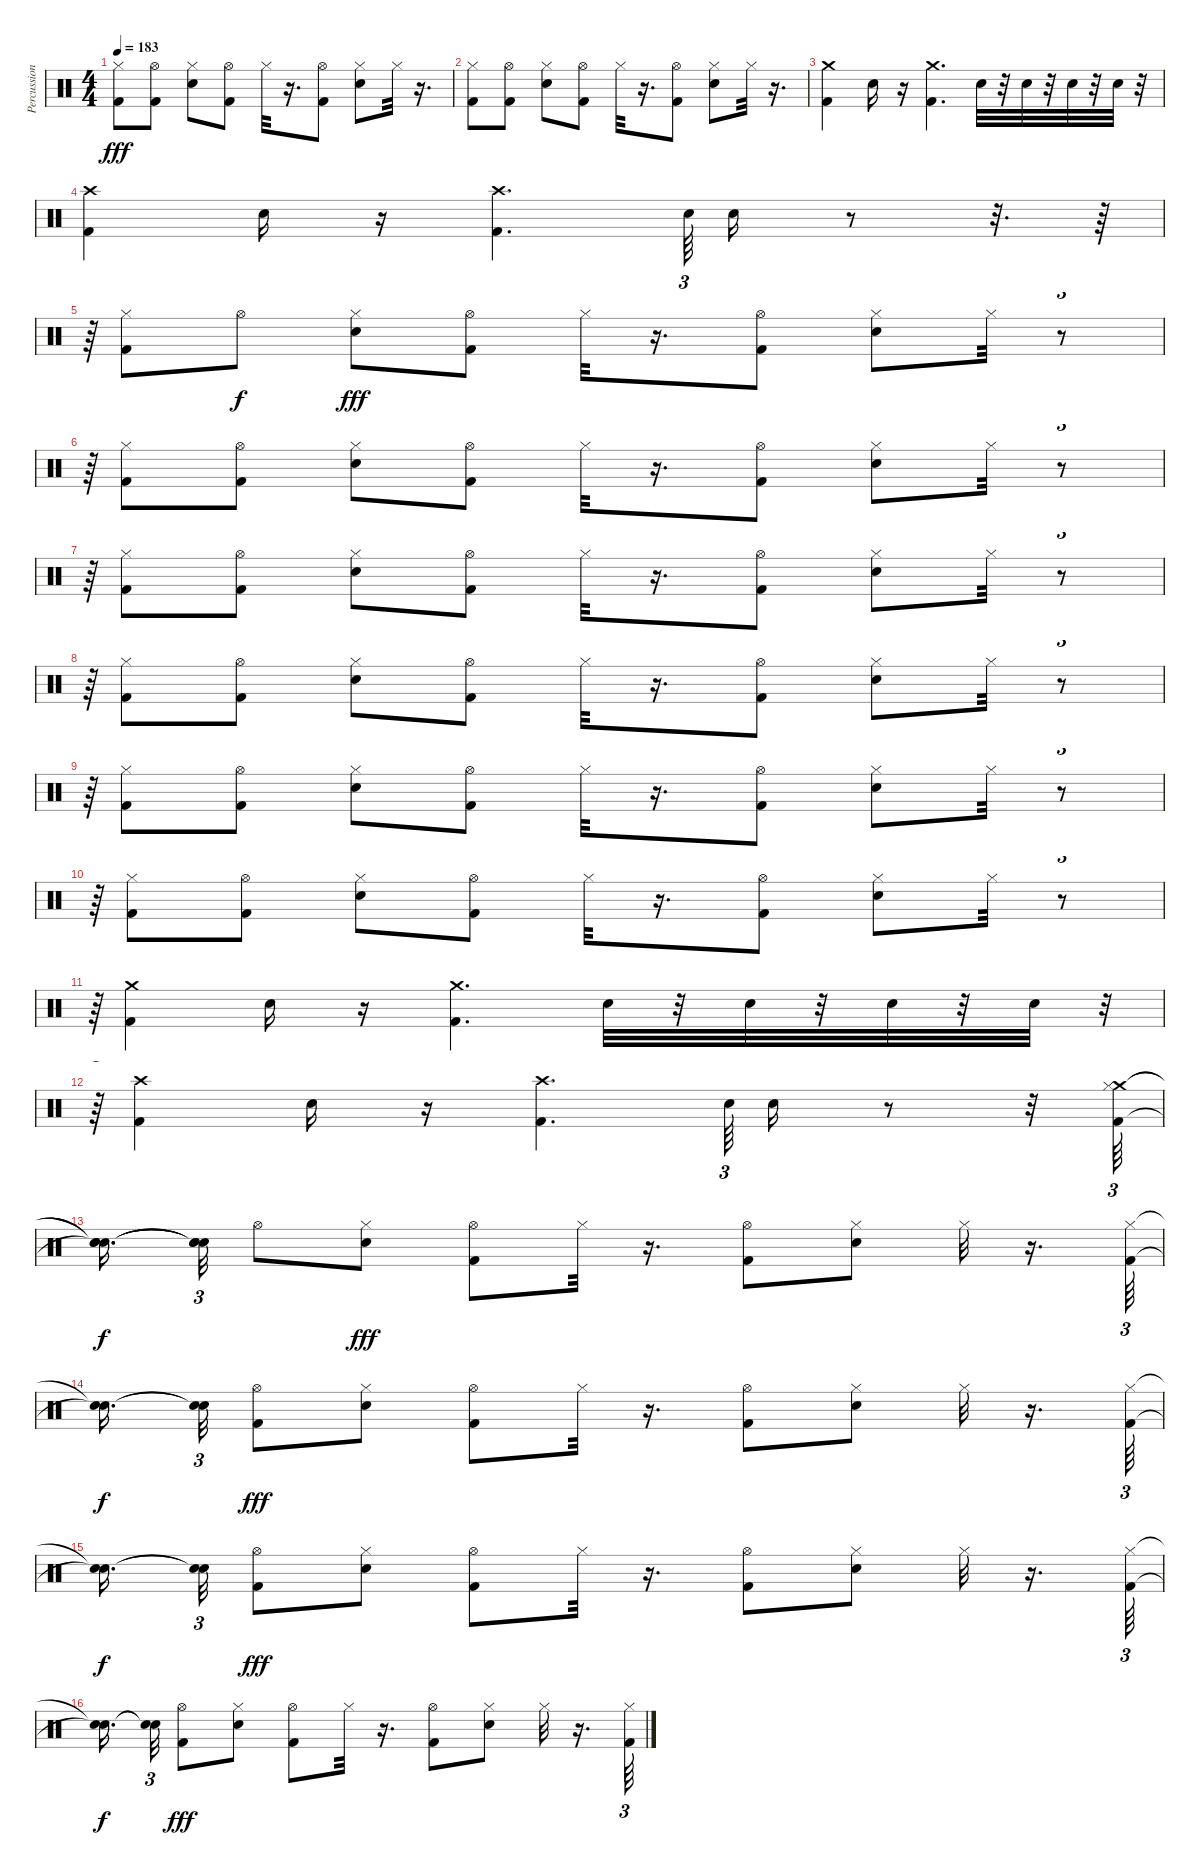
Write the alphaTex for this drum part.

\track ("Percussioni" "Percussion") {instrument percussion}
\staff {score}
\articulation defaults
\ts (4 4)
\tempo 183
\clef neutral
\ks c
("Hi-Hat (closed)" "Kick (hit) 2").8{dy fff} ("Hi-Hat (open)" "Kick (hit) 2").8 ("Hi-Hat (closed)" "Snare (hit) 2").8 ("Hi-Hat (open)" "Kick (hit) 2").8 "Hi-Hat (closed)".32 r.16{d} ("Hi-Hat (open)" "Kick (hit) 2").8 ("Hi-Hat (closed)" "Snare (hit) 2").8 "Hi-Hat (closed)".32 r.16{d} |
("Hi-Hat (closed)" "Kick (hit) 2").8 ("Hi-Hat (open)" "Kick (hit) 2").8 ("Hi-Hat (closed)" "Snare (hit) 2").8 ("Hi-Hat (open)" "Kick (hit) 2").8 "Hi-Hat (closed)".32 r.16{d} ("Hi-Hat (open)" "Kick (hit) 2").8 ("Hi-Hat (closed)" "Snare (hit) 2").8 "Hi-Hat (closed)".32 r.16{d} |
("Crash medium (hit)" "Kick (hit) 2").4 "Snare (hit) 2".16 r.16 ("Crash medium (hit)" "Kick (hit) 2").4{d} "Snare (hit) 2".32 r.32 "Snare (hit) 2".32 r.32 "Snare (hit) 2".32 r.32 "Snare (hit) 2".32 r.32 |
("Crash high (hit)" "Kick (hit) 2").4 "Snare (hit) 2".16 r.16 ("Crash high (hit)" "Kick (hit) 2").4{d} "Snare (hit) 2".64{tu (3 2)} "Snare (hit) 2".16 r.8 r.32{d} r.64 |
r.64{tu (3 2)} ("Hi-Hat (closed)" "Kick (hit) 2").8 "Hi-Hat (open)".8{dy f} ("Hi-Hat (closed)" "Snare (hit) 2").8{dy fff} ("Hi-Hat (open)" "Kick (hit) 2").8 "Hi-Hat (closed)".32 r.16{d} ("Hi-Hat (open)" "Kick (hit) 2").8 ("Hi-Hat (closed)" "Snare (hit) 2").8 "Hi-Hat (closed)".32 r.8{tu (3 2)} |
r.64{tu (3 2)} ("Hi-Hat (closed)" "Kick (hit) 2").8 ("Hi-Hat (open)" "Kick (hit) 2").8 ("Hi-Hat (closed)" "Snare (hit) 2").8 ("Hi-Hat (open)" "Kick (hit) 2").8 "Hi-Hat (closed)".32 r.16{d} ("Hi-Hat (open)" "Kick (hit) 2").8 ("Hi-Hat (closed)" "Snare (hit) 2").8 "Hi-Hat (closed)".32 r.8{tu (3 2)} |
r.64{tu (3 2)} ("Hi-Hat (closed)" "Kick (hit) 2").8 ("Hi-Hat (open)" "Kick (hit) 2").8 ("Hi-Hat (closed)" "Snare (hit) 2").8 ("Hi-Hat (open)" "Kick (hit) 2").8 "Hi-Hat (closed)".32 r.16{d} ("Hi-Hat (open)" "Kick (hit) 2").8 ("Hi-Hat (closed)" "Snare (hit) 2").8 "Hi-Hat (closed)".32 r.8{tu (3 2)} |
r.64{tu (3 2)} ("Hi-Hat (closed)" "Kick (hit) 2").8 ("Hi-Hat (open)" "Kick (hit) 2").8 ("Hi-Hat (closed)" "Snare (hit) 2").8 ("Hi-Hat (open)" "Kick (hit) 2").8 "Hi-Hat (closed)".32 r.16{d} ("Hi-Hat (open)" "Kick (hit) 2").8 ("Hi-Hat (closed)" "Snare (hit) 2").8 "Hi-Hat (closed)".32 r.8{tu (3 2)} |
r.64{tu (3 2)} ("Hi-Hat (closed)" "Kick (hit) 2").8 ("Hi-Hat (open)" "Kick (hit) 2").8 ("Hi-Hat (closed)" "Snare (hit) 2").8 ("Hi-Hat (open)" "Kick (hit) 2").8 "Hi-Hat (closed)".32 r.16{d} ("Hi-Hat (open)" "Kick (hit) 2").8 ("Hi-Hat (closed)" "Snare (hit) 2").8 "Hi-Hat (closed)".32 r.8{tu (3 2)} |
r.64{tu (3 2)} ("Hi-Hat (closed)" "Kick (hit) 2").8 ("Hi-Hat (open)" "Kick (hit) 2").8 ("Hi-Hat (closed)" "Snare (hit) 2").8 ("Hi-Hat (open)" "Kick (hit) 2").8 "Hi-Hat (closed)".32 r.16{d} ("Hi-Hat (open)" "Kick (hit) 2").8 ("Hi-Hat (closed)" "Snare (hit) 2").8 "Hi-Hat (closed)".32 r.8{tu (3 2)} |
r.64{tu (3 2)} ("Crash medium (hit)" "Kick (hit) 2").4 "Snare (hit) 2".16 r.16 ("Crash medium (hit)" "Kick (hit) 2").4{d} "Snare (hit) 2".32 r.32 "Snare (hit) 2".32 r.32 "Snare (hit) 2".32 r.32 "Snare (hit) 2".32 r.32{tu (3 2)} |
r.64{tu (3 2)} ("Crash high (hit)" "Kick (hit) 2").4 "Snare (hit) 2".16 r.16 ("Crash high (hit)" "Kick (hit) 2").4{d} "Snare (hit) 2".64{tu (3 2)} "Snare (hit) 2".16 r.8 r.32 ("Crash medium (hit)" "Hi-Hat (closed)" "Kick (hit) 2").64{tu (3 2)} |
("Snare (hit)"{t} "Snare (hit)"{t} "Snare (hit)"{t}).16{d dy f beam splitsecondary} ("Snare (hit)"{t} "Snare (hit)"{t} "Snare (hit)"{t}).32{tu (3 2)} "Hi-Hat (open)".8 ("Hi-Hat (closed)" "Snare (hit) 2").8{dy fff} ("Hi-Hat (open)" "Kick (hit) 2").8 "Hi-Hat (closed)".32 r.16{d} ("Hi-Hat (open)" "Kick (hit) 2").8 ("Hi-Hat (closed)" "Snare (hit) 2").8 "Hi-Hat (closed)".32 r.16{d} ("Hi-Hat (closed)" "Kick (hit) 2").64{tu (3 2)} |
("Snare (hit)"{t} "Snare (hit)"{t}).16{d dy f beam splitsecondary} ("Snare (hit)"{t} "Snare (hit)"{t}).32{tu (3 2)} ("Hi-Hat (open)" "Kick (hit) 2").8{dy fff} ("Hi-Hat (closed)" "Snare (hit) 2").8 ("Hi-Hat (open)" "Kick (hit) 2").8 "Hi-Hat (closed)".32 r.16{d} ("Hi-Hat (open)" "Kick (hit) 2").8 ("Hi-Hat (closed)" "Snare (hit) 2").8 "Hi-Hat (closed)".32 r.16{d} ("Hi-Hat (closed)" "Kick (hit) 2").64{tu (3 2)} |
("Snare (hit)"{t} "Snare (hit)"{t}).16{d dy f beam splitsecondary} ("Snare (hit)"{t} "Snare (hit)"{t}).32{tu (3 2)} ("Hi-Hat (open)" "Kick (hit) 2").8{dy fff} ("Hi-Hat (closed)" "Snare (hit) 2").8 ("Hi-Hat (open)" "Kick (hit) 2").8 "Hi-Hat (closed)".32 r.16{d} ("Hi-Hat (open)" "Kick (hit) 2").8 ("Hi-Hat (closed)" "Snare (hit) 2").8 "Hi-Hat (closed)".32 r.16{d} ("Hi-Hat (closed)" "Kick (hit) 2").64{tu (3 2)} |
("Snare (hit)"{t} "Snare (hit)"{t}).16{d dy f beam splitsecondary} ("Snare (hit)"{t} "Snare (hit)"{t}).32{tu (3 2)} ("Hi-Hat (open)" "Kick (hit) 2").8{dy fff} ("Hi-Hat (closed)" "Snare (hit) 2").8 ("Hi-Hat (open)" "Kick (hit) 2").8 "Hi-Hat (closed)".32 r.16{d} ("Hi-Hat (open)" "Kick (hit) 2").8 ("Hi-Hat (closed)" "Snare (hit) 2").8 "Hi-Hat (closed)".32 r.16{d} ("Hi-Hat (closed)" "Kick (hit) 2").64{tu (3 2)}
